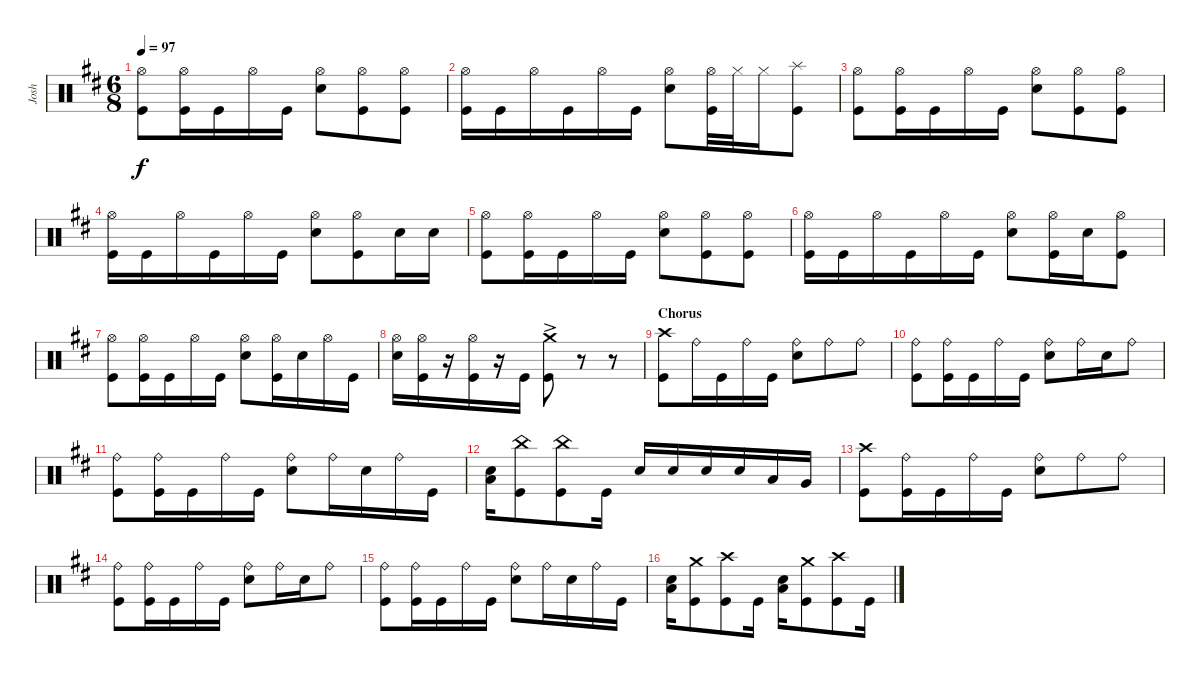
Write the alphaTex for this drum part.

\track ("Josh" "Josh") {instrument percussion}
\staff {score}
\articulation defaults
\ts (6 8)
\tempo 97
\clef neutral
\ks bminor
("Kick (hit)" "Hi-Hat (open)").8{dy f} ("Kick (hit)" "Hi-Hat (open)").16 "Kick (hit)".16 "Hi-Hat (open)".16 "Kick (hit)".16 ("Snare (hit) 2" "Hi-Hat (open)").8 ("Kick (hit)" "Hi-Hat (open)").8 ("Kick (hit)" "Hi-Hat (open)").8 |
("Kick (hit)" "Hi-Hat (open)").16 "Kick (hit)".16 "Hi-Hat (open)".16 "Kick (hit)".16 "Hi-Hat (open)".16 "Kick (hit)".16 ("Hi-Hat (open)" "Snare (hit) 2").8 ("Kick (hit)" "Hi-Hat (open)").32 "Hi-Hat (closed)".32 "Hi-Hat (closed)".16 ("Kick (hit)" "Splash (hit)").8 |
("Kick (hit)" "Hi-Hat (open)").8 ("Kick (hit)" "Hi-Hat (open)").16 "Kick (hit)".16 "Hi-Hat (open)".16 "Kick (hit)".16 ("Snare (hit) 2" "Hi-Hat (open)").8 ("Kick (hit)" "Hi-Hat (open)").8 ("Kick (hit)" "Hi-Hat (open)").8 |
("Kick (hit)" "Hi-Hat (open)").16 "Kick (hit)".16 "Hi-Hat (open)".16 "Kick (hit)".16 "Hi-Hat (open)".16 "Kick (hit)".16 ("Hi-Hat (open)" "Snare (hit) 2").8 ("Hi-Hat (open)" "Kick (hit)").8 "Snare (hit) 2".16 "Snare (hit) 2".16 |
("Kick (hit)" "Hi-Hat (open)").8 ("Kick (hit)" "Hi-Hat (open)").16 "Kick (hit)".16 "Hi-Hat (open)".16 "Kick (hit)".16 ("Snare (hit) 2" "Hi-Hat (open)").8 ("Kick (hit)" "Hi-Hat (open)").8 ("Kick (hit)" "Hi-Hat (open)").8 |
("Kick (hit)" "Hi-Hat (open)").16 "Kick (hit)".16 "Hi-Hat (open)".16 "Kick (hit)".16 "Hi-Hat (open)".16 "Kick (hit)".16 ("Snare (hit) 2" "Hi-Hat (open)").8 ("Kick (hit)" "Hi-Hat (open)").16 "Snare (hit) 2".16 ("Hi-Hat (open)" "Kick (hit)").8 |
("Kick (hit)" "Hi-Hat (open)").8 ("Kick (hit)" "Hi-Hat (open)").16 "Kick (hit)".16 "Hi-Hat (open)".16 "Kick (hit)".16 ("Snare (hit) 2" "Hi-Hat (open)").8 ("Kick (hit)" "Hi-Hat (open)").16 "Snare (hit) 2".16 "Hi-Hat (open)".16 "Kick (hit)".16 |
("Snare (hit) 2" "Hi-Hat (open)").16 ("Kick (hit)" "Hi-Hat (open)").16 r.16 ("Kick (hit)" "Hi-Hat (open)").16 r.16 "Kick (hit)".16 ("Kick (hit)"{ac} "Crash medium (hit)"{ac}).8 r.8 r.8 |
\section ("" "Chorus")
("Kick (hit)" "Crash high (hit)").8 "Ride (bell)".16 "Kick (hit)".16 "Ride (bell)".16 "Kick (hit)".16 ("Snare (hit) 2" "Ride (bell)").8 "Ride (bell)".8 "Ride (bell)".8 |
("Kick (hit)" "Ride (bell)").8 ("Kick (hit)" "Ride (bell)").16 "Kick (hit)".16 "Ride (bell)".16 "Kick (hit)".16 ("Snare (hit) 2" "Ride (bell)").8 "Ride (bell)".16 "Snare (hit) 2".16 "Ride (bell)".8 |
("Kick (hit)" "Ride (bell)").8 ("Kick (hit)" "Ride (bell)").16 "Kick (hit)".16 "Ride (bell)".16 "Kick (hit)".16 ("Snare (hit) 2" "Ride (bell)").8 "Ride (bell)".16 "Snare (hit) 2".16 "Ride (bell)".16 "Kick (hit)".16 |
("Snare (hit) 2" "Low Floor Tom (hit)").16 ("Kick (hit)" "China (hit)").8 ("Kick (hit)" "China (hit)").8 "Kick (hit)".16 "Snare (hit) 2".16 "Snare (hit) 2".16 "Snare (hit) 2".16 "Snare (hit) 2".16 "Low Tom (hit)".16 "Very Low Tom (hit)".16 |
("Kick (hit)" "Crash high (hit)").8 ("Ride (bell)" "Kick (hit)").16 "Kick (hit)".16 "Ride (bell)".16 "Kick (hit)".16 ("Snare (hit) 2" "Ride (bell)").8 "Ride (bell)".8 "Ride (bell)".8 |
("Kick (hit)" "Ride (bell)").8 ("Kick (hit)" "Ride (bell)").16 "Kick (hit)".16 "Ride (bell)".16 "Kick (hit)".16 ("Snare (hit) 2" "Ride (bell)").8 "Ride (bell)".16 "Snare (hit) 2".16 "Ride (bell)".8 |
("Kick (hit)" "Ride (bell)").8 ("Kick (hit)" "Ride (bell)").16 "Kick (hit)".16 "Ride (bell)".16 "Kick (hit)".16 ("Snare (hit) 2" "Ride (bell)").8 "Ride (bell)".16 "Snare (hit) 2".16 "Ride (bell)".16 "Kick (hit)".16 |
("Low Floor Tom (hit)" "Snare (hit) 2").16 ("Kick (hit)" "Crash medium (hit)").8 ("Kick (hit)" "Crash high (hit)").8 "Kick (hit)".16 ("Low Floor Tom (hit)" "Snare (hit) 2").16 ("Kick (hit)" "Crash medium (hit)").8 ("Kick (hit)" "Crash high (hit)").8 "Kick (hit)".16
